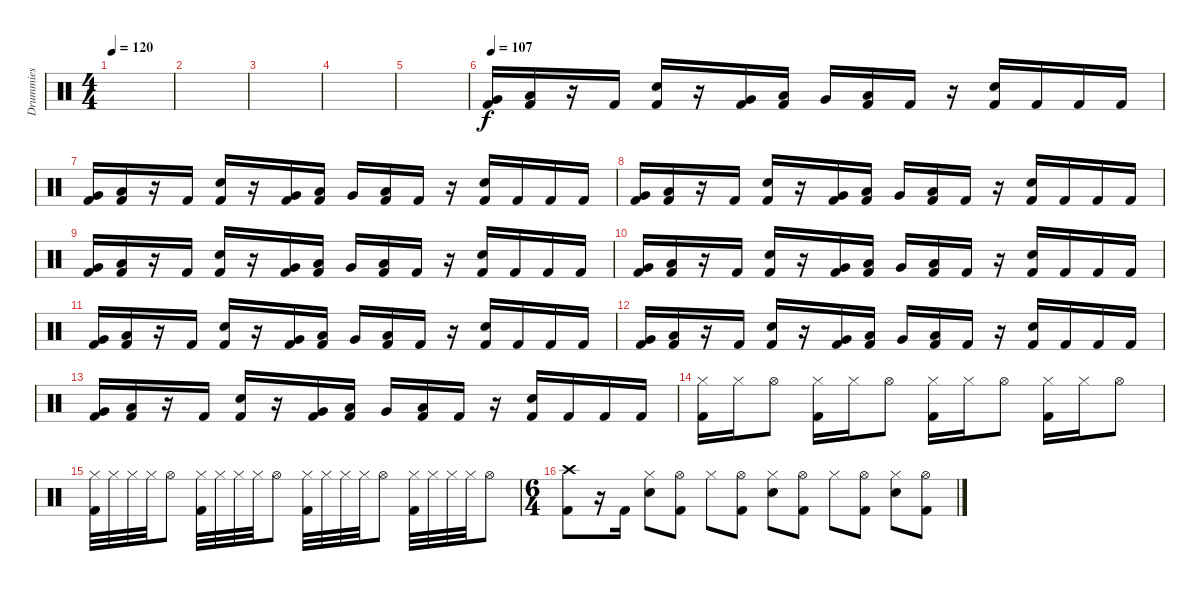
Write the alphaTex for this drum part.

\track ("Drummies" "Drummies") {instrument percussion}
\staff {score}
\articulation defaults
\ts (4 4)
\tempo 120
\clef neutral
\ks c
|
|
|
|
|
\tempo 107
("Very Low Tom (hit)" "Kick (hit) 2").16 ("Low Tom (hit)" "Kick (hit) 2").16 r.16 "Kick (hit) 2".16 ("Electric Snare (hit)" "Kick (hit) 2").16 r.16 ("Very Low Tom (hit)" "Kick (hit) 2").16 ("Low Tom (hit)" "Kick (hit) 2").16 "Very Low Tom (hit)".16 ("Low Floor Tom (hit)" "Kick (hit) 2").16 "Kick (hit) 2".16 r.16 ("Electric Snare (hit)" "Kick (hit) 2").16 "Kick (hit) 2".16 "Kick (hit) 2".16 "Kick (hit) 2".16 |
("Very Low Tom (hit)" "Kick (hit) 2").16 ("Low Tom (hit)" "Kick (hit) 2").16 r.16 "Kick (hit) 2".16 ("Electric Snare (hit)" "Kick (hit) 2").16 r.16 ("Very Low Tom (hit)" "Kick (hit) 2").16 ("Low Tom (hit)" "Kick (hit) 2").16 "Very Low Tom (hit)".16 ("Low Floor Tom (hit)" "Kick (hit) 2").16 "Kick (hit) 2".16 r.16 ("Electric Snare (hit)" "Kick (hit) 2").16 "Kick (hit) 2".16 "Kick (hit) 2".16 "Kick (hit) 2".16 |
("Very Low Tom (hit)" "Kick (hit) 2").16 ("Low Tom (hit)" "Kick (hit) 2").16 r.16 "Kick (hit) 2".16 ("Electric Snare (hit)" "Kick (hit) 2").16 r.16 ("Very Low Tom (hit)" "Kick (hit) 2").16 ("Low Tom (hit)" "Kick (hit) 2").16 "Very Low Tom (hit)".16 ("Low Floor Tom (hit)" "Kick (hit) 2").16 "Kick (hit) 2".16 r.16 ("Electric Snare (hit)" "Kick (hit) 2").16 "Kick (hit) 2".16 "Kick (hit) 2".16 "Kick (hit) 2".16 |
("Very Low Tom (hit)" "Kick (hit) 2").16 ("Low Tom (hit)" "Kick (hit) 2").16 r.16 "Kick (hit) 2".16 ("Electric Snare (hit)" "Kick (hit) 2").16 r.16 ("Very Low Tom (hit)" "Kick (hit) 2").16 ("Low Tom (hit)" "Kick (hit) 2").16 "Very Low Tom (hit)".16 ("Low Floor Tom (hit)" "Kick (hit) 2").16 "Kick (hit) 2".16 r.16 ("Electric Snare (hit)" "Kick (hit) 2").16 "Kick (hit) 2".16 "Kick (hit) 2".16 "Kick (hit) 2".16 |
("Very Low Tom (hit)" "Kick (hit) 2").16 ("Low Tom (hit)" "Kick (hit) 2").16 r.16 "Kick (hit) 2".16 ("Electric Snare (hit)" "Kick (hit) 2").16 r.16 ("Very Low Tom (hit)" "Kick (hit) 2").16 ("Low Tom (hit)" "Kick (hit) 2").16 "Very Low Tom (hit)".16 ("Low Floor Tom (hit)" "Kick (hit) 2").16 "Kick (hit) 2".16 r.16 ("Electric Snare (hit)" "Kick (hit) 2").16 "Kick (hit) 2".16 "Kick (hit) 2".16 "Kick (hit) 2".16 |
("Very Low Tom (hit)" "Kick (hit) 2").16 ("Low Tom (hit)" "Kick (hit) 2").16 r.16 "Kick (hit) 2".16 ("Electric Snare (hit)" "Kick (hit) 2").16 r.16 ("Very Low Tom (hit)" "Kick (hit) 2").16 ("Low Tom (hit)" "Kick (hit) 2").16 "Very Low Tom (hit)".16 ("Low Floor Tom (hit)" "Kick (hit) 2").16 "Kick (hit) 2".16 r.16 ("Electric Snare (hit)" "Kick (hit) 2").16 "Kick (hit) 2".16 "Kick (hit) 2".16 "Kick (hit) 2".16 |
("Very Low Tom (hit)" "Kick (hit) 2").16 ("Low Tom (hit)" "Kick (hit) 2").16 r.16 "Kick (hit) 2".16 ("Electric Snare (hit)" "Kick (hit) 2").16 r.16 ("Very Low Tom (hit)" "Kick (hit) 2").16 ("Low Tom (hit)" "Kick (hit) 2").16 "Very Low Tom (hit)".16 ("Low Floor Tom (hit)" "Kick (hit) 2").16 "Kick (hit) 2".16 r.16 ("Electric Snare (hit)" "Kick (hit) 2").16 "Kick (hit) 2".16 "Kick (hit) 2".16 "Kick (hit) 2".16 |
("Very Low Tom (hit)" "Kick (hit) 2").16 ("Low Tom (hit)" "Kick (hit) 2").16 r.16 "Kick (hit) 2".16 ("Electric Snare (hit)" "Kick (hit) 2").16 r.16 ("Very Low Tom (hit)" "Kick (hit) 2").16 ("Low Tom (hit)" "Kick (hit) 2").16 "Very Low Tom (hit)".16 ("Low Floor Tom (hit)" "Kick (hit) 2").16 "Kick (hit) 2".16 r.16 ("Electric Snare (hit)" "Kick (hit) 2").16 "Kick (hit) 2".16 "Kick (hit) 2".16 "Kick (hit) 2".16 |
("Hi-Hat (closed)" "Kick (hit) 2").16 "Hi-Hat (closed)".16 "Hi-Hat (open)".8 ("Hi-Hat (closed)" "Kick (hit) 2").16 "Hi-Hat (closed)".16 "Hi-Hat (open)".8 ("Hi-Hat (closed)" "Kick (hit) 2").16 "Hi-Hat (closed)".16 "Hi-Hat (open)".8 ("Hi-Hat (closed)" "Kick (hit) 2").16 "Hi-Hat (closed)".16 "Hi-Hat (open)".8 |
("Hi-Hat (closed)" "Kick (hit) 2").32 "Hi-Hat (closed)".32 "Hi-Hat (closed)".32 "Hi-Hat (closed)".32 "Hi-Hat (open)".8 ("Hi-Hat (closed)" "Kick (hit) 2").32 "Hi-Hat (closed)".32 "Hi-Hat (closed)".32 "Hi-Hat (closed)".32 "Hi-Hat (open)".8 ("Hi-Hat (closed)" "Kick (hit) 2").32 "Hi-Hat (closed)".32 "Hi-Hat (closed)".32 "Hi-Hat (closed)".32 "Hi-Hat (open)".8 ("Hi-Hat (closed)" "Kick (hit) 2").32 "Hi-Hat (closed)".32 "Hi-Hat (closed)".32 "Hi-Hat (closed)".32 "Hi-Hat (open)".8 |
\ts (6 4)
("Crash high (hit)" "Kick (hit) 2").8 r.16 "Kick (hit) 2".16 ("Hi-Hat (closed)" "Electric Snare (hit)").8 ("Hi-Hat (open)" "Kick (hit) 2").8 "Hi-Hat (closed)".8 ("Hi-Hat (open)" "Kick (hit) 2").8 ("Hi-Hat (closed)" "Electric Snare (hit)").8 ("Hi-Hat (open)" "Kick (hit) 2").8 "Hi-Hat (closed)".8 ("Hi-Hat (open)" "Kick (hit) 2").8 ("Hi-Hat (closed)" "Electric Snare (hit)").8 ("Hi-Hat (open)" "Kick (hit) 2").8
